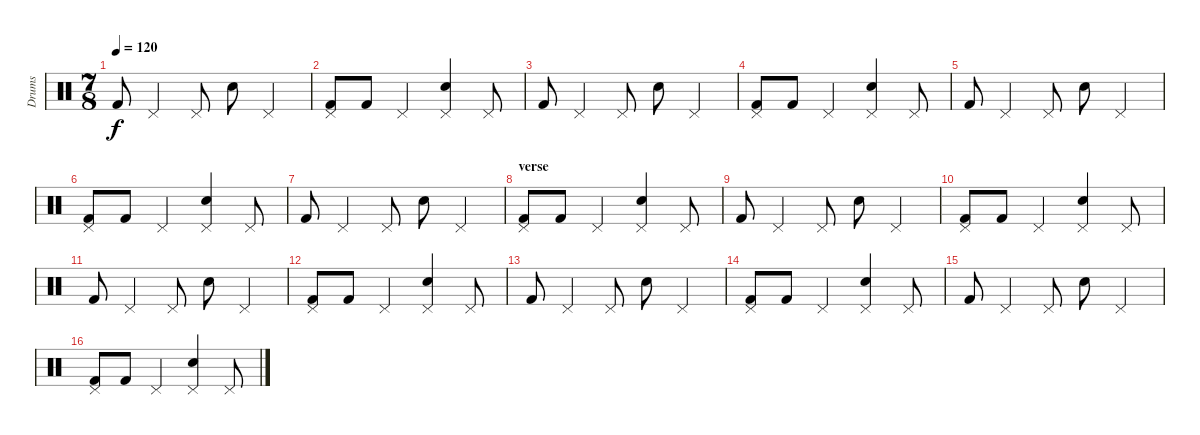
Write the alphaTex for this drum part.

\track ("Drums" "Drums") {instrument percussion}
\staff {score}
\articulation defaults
\ts (7 8)
\tempo 120
\clef neutral
\ks c "Kick (hit) 2".8{dy f} "Pedal Hi-Hat (hit)".4 "Pedal Hi-Hat (hit)".8 "Electric Snare (hit)".8 "Pedal Hi-Hat (hit)".4
|
("Pedal Hi-Hat (hit)" "Kick (hit) 2").8 "Kick (hit) 2".8 "Pedal Hi-Hat (hit)".4 ("Pedal Hi-Hat (hit)" "Electric Snare (hit)").4 "Pedal Hi-Hat (hit)".8 |
"Kick (hit) 2".8 "Pedal Hi-Hat (hit)".4 "Pedal Hi-Hat (hit)".8 "Electric Snare (hit)".8 "Pedal Hi-Hat (hit)".4 |
("Pedal Hi-Hat (hit)" "Kick (hit) 2").8 "Kick (hit) 2".8 "Pedal Hi-Hat (hit)".4 ("Pedal Hi-Hat (hit)" "Electric Snare (hit)").4 "Pedal Hi-Hat (hit)".8 |
"Kick (hit) 2".8 "Pedal Hi-Hat (hit)".4 "Pedal Hi-Hat (hit)".8 "Electric Snare (hit)".8 "Pedal Hi-Hat (hit)".4 |
("Pedal Hi-Hat (hit)" "Kick (hit) 2").8 "Kick (hit) 2".8 "Pedal Hi-Hat (hit)".4 ("Pedal Hi-Hat (hit)" "Electric Snare (hit)").4 "Pedal Hi-Hat (hit)".8 |
"Kick (hit) 2".8 "Pedal Hi-Hat (hit)".4 "Pedal Hi-Hat (hit)".8 "Electric Snare (hit)".8 "Pedal Hi-Hat (hit)".4 |
\section ("" "verse")
("Pedal Hi-Hat (hit)" "Kick (hit) 2").8 "Kick (hit) 2".8 "Pedal Hi-Hat (hit)".4 ("Pedal Hi-Hat (hit)" "Electric Snare (hit)").4 "Pedal Hi-Hat (hit)".8 |
"Kick (hit) 2".8 "Pedal Hi-Hat (hit)".4 "Pedal Hi-Hat (hit)".8 "Electric Snare (hit)".8 "Pedal Hi-Hat (hit)".4 |
("Pedal Hi-Hat (hit)" "Kick (hit) 2").8 "Kick (hit) 2".8 "Pedal Hi-Hat (hit)".4 ("Pedal Hi-Hat (hit)" "Electric Snare (hit)").4 "Pedal Hi-Hat (hit)".8 |
"Kick (hit) 2".8 "Pedal Hi-Hat (hit)".4 "Pedal Hi-Hat (hit)".8 "Electric Snare (hit)".8 "Pedal Hi-Hat (hit)".4 |
("Pedal Hi-Hat (hit)" "Kick (hit) 2").8 "Kick (hit) 2".8 "Pedal Hi-Hat (hit)".4 ("Pedal Hi-Hat (hit)" "Electric Snare (hit)").4 "Pedal Hi-Hat (hit)".8 |
"Kick (hit) 2".8 "Pedal Hi-Hat (hit)".4 "Pedal Hi-Hat (hit)".8 "Electric Snare (hit)".8 "Pedal Hi-Hat (hit)".4 |
("Pedal Hi-Hat (hit)" "Kick (hit) 2").8 "Kick (hit) 2".8 "Pedal Hi-Hat (hit)".4 ("Pedal Hi-Hat (hit)" "Electric Snare (hit)").4 "Pedal Hi-Hat (hit)".8 |
"Kick (hit) 2".8 "Pedal Hi-Hat (hit)".4 "Pedal Hi-Hat (hit)".8 "Electric Snare (hit)".8 "Pedal Hi-Hat (hit)".4 |
("Pedal Hi-Hat (hit)" "Kick (hit) 2").8 "Kick (hit) 2".8 "Pedal Hi-Hat (hit)".4 ("Pedal Hi-Hat (hit)" "Electric Snare (hit)").4 "Pedal Hi-Hat (hit)".8
